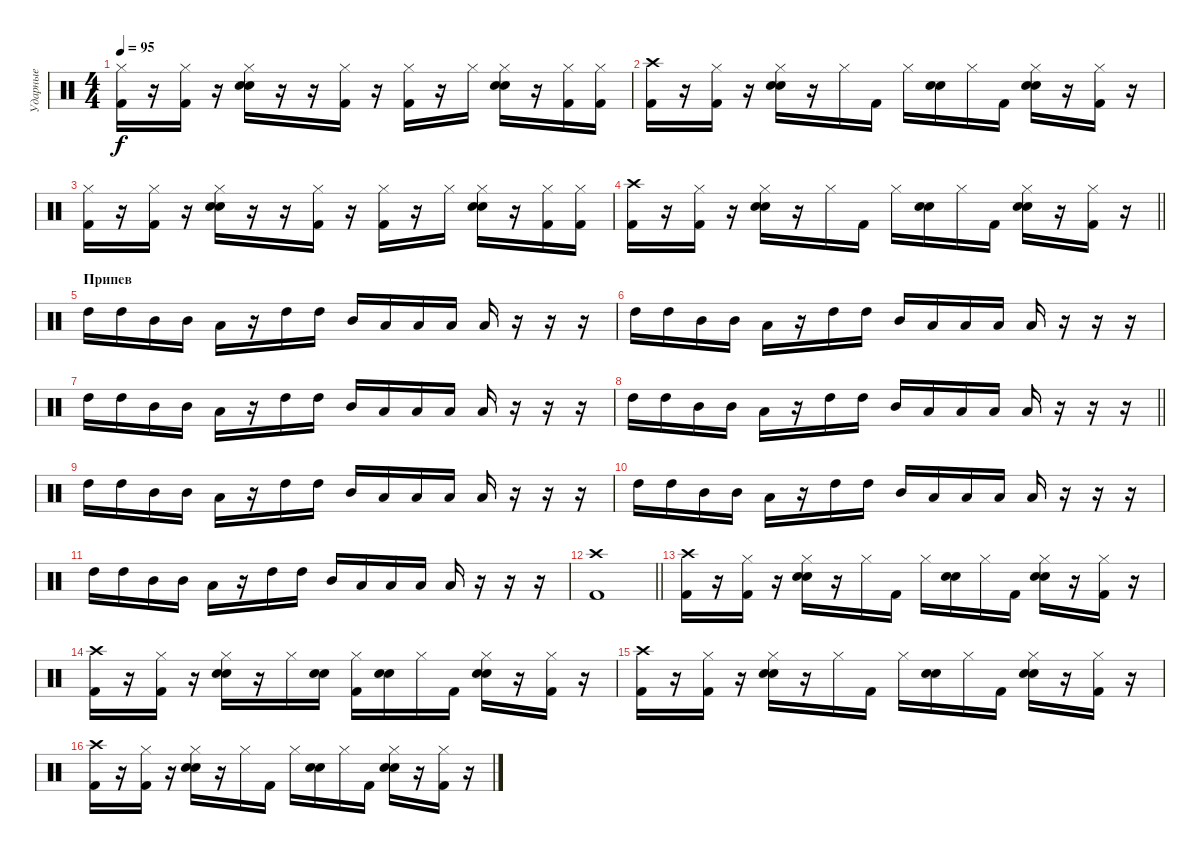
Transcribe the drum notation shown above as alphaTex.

\track ("Ударные" "Ударные") {instrument percussion}
\staff {score}
\articulation defaults
\ts (4 4)
\tempo 95
\clef neutral
\ks c
("Hi-Hat (closed)" "Kick (hit) 2").16{dy f} r.16 ("Hi-Hat (closed)" "Kick (hit) 2").16 r.16 ("Hi-Hat (closed)" "Snare (hit) 2" "Electric Snare (hit)").16 r.16 r.16 ("Hi-Hat (closed)" "Kick (hit) 2").16 r.16 ("Hi-Hat (closed)" "Kick (hit) 2").16 r.16 "Hi-Hat (closed)".16 ("Hi-Hat (closed)" "Snare (hit) 2" "Electric Snare (hit)").16 r.16 ("Hi-Hat (closed)" "Kick (hit) 2").16 ("Hi-Hat (closed)" "Kick (hit) 2").16 |
("Crash high (hit)" "Kick (hit) 2").16 r.16 ("Hi-Hat (closed)" "Kick (hit) 2").16 r.16 ("Hi-Hat (closed)" "Snare (hit) 2" "Electric Snare (hit)").16 r.16 "Hi-Hat (closed)".16 "Kick (hit) 2".16 "Hi-Hat (closed)".16 ("Snare (hit) 2" "Electric Snare (hit)").16 "Hi-Hat (closed)".16 "Kick (hit) 2".16 ("Hi-Hat (closed)" "Snare (hit) 2" "Electric Snare (hit)").16 r.16 ("Hi-Hat (closed)" "Kick (hit) 2").16 r.16 |
("Hi-Hat (closed)" "Kick (hit) 2").16 r.16 ("Hi-Hat (closed)" "Kick (hit) 2").16 r.16 ("Hi-Hat (closed)" "Snare (hit) 2" "Electric Snare (hit)").16 r.16 r.16 ("Hi-Hat (closed)" "Kick (hit) 2").16 r.16 ("Hi-Hat (closed)" "Kick (hit) 2").16 r.16 "Hi-Hat (closed)".16 ("Hi-Hat (closed)" "Snare (hit) 2" "Electric Snare (hit)").16 r.16 ("Hi-Hat (closed)" "Kick (hit) 2").16 ("Hi-Hat (closed)" "Kick (hit) 2").16 |
\barLineRight lightlight
("Crash high (hit)" "Kick (hit) 2").16 r.16 ("Hi-Hat (closed)" "Kick (hit) 2").16 r.16 ("Hi-Hat (closed)" "Snare (hit) 2" "Electric Snare (hit)").16 r.16 "Hi-Hat (closed)".16 "Kick (hit) 2".16 "Hi-Hat (closed)".16 ("Snare (hit) 2" "Electric Snare (hit)").16 "Hi-Hat (closed)".16 "Kick (hit) 2".16 ("Hi-Hat (closed)" "Snare (hit) 2" "Electric Snare (hit)").16 r.16 ("Hi-Hat (closed)" "Kick (hit) 2").16 r.16 |
\section ("" "Припев")
"High Tom (hit)".16 "High Tom (hit)".16 "Mid Tom (hit)".16 "Mid Tom (hit)".16 "Low Tom (hit)".16 r.16 "High Tom (hit)".16 "High Tom (hit)".16 "Mid Tom (hit)".16 "Low Tom (hit)".16 "Low Tom (hit)".16 "Low Tom (hit)".16 "Low Tom (hit)".16 r.16 r.16 r.16 |
"High Tom (hit)".16 "High Tom (hit)".16 "Mid Tom (hit)".16 "Mid Tom (hit)".16 "Low Tom (hit)".16 r.16 "High Tom (hit)".16 "High Tom (hit)".16 "Mid Tom (hit)".16 "Low Tom (hit)".16 "Low Tom (hit)".16 "Low Tom (hit)".16 "Low Tom (hit)".16 r.16 r.16 r.16 |
"High Tom (hit)".16 "High Tom (hit)".16 "Mid Tom (hit)".16 "Mid Tom (hit)".16 "Low Tom (hit)".16 r.16 "High Tom (hit)".16 "High Tom (hit)".16 "Mid Tom (hit)".16 "Low Tom (hit)".16 "Low Tom (hit)".16 "Low Tom (hit)".16 "Low Tom (hit)".16 r.16 r.16 r.16 |
\barLineRight lightlight "High Tom (hit)".16 "High Tom (hit)".16 "Mid Tom (hit)".16 "Mid Tom (hit)".16 "Low Tom (hit)".16
r.16 "High Tom (hit)".16 "High Tom (hit)".16 "Mid Tom (hit)".16 "Low Tom (hit)".16 "Low Tom (hit)".16 "Low Tom (hit)".16 "Low Tom (hit)".16 r.16 r.16 r.16 |
"High Tom (hit)".16 "High Tom (hit)".16 "Mid Tom (hit)".16 "Mid Tom (hit)".16 "Low Tom (hit)".16 r.16 "High Tom (hit)".16 "High Tom (hit)".16 "Mid Tom (hit)".16 "Low Tom (hit)".16 "Low Tom (hit)".16 "Low Tom (hit)".16 "Low Tom (hit)".16 r.16 r.16 r.16 |
"High Tom (hit)".16 "High Tom (hit)".16 "Mid Tom (hit)".16 "Mid Tom (hit)".16 "Low Tom (hit)".16 r.16 "High Tom (hit)".16 "High Tom (hit)".16 "Mid Tom (hit)".16 "Low Tom (hit)".16 "Low Tom (hit)".16 "Low Tom (hit)".16 "Low Tom (hit)".16 r.16 r.16 r.16 |
"High Tom (hit)".16 "High Tom (hit)".16 "Mid Tom (hit)".16 "Mid Tom (hit)".16 "Low Tom (hit)".16 r.16 "High Tom (hit)".16 "High Tom (hit)".16 "Mid Tom (hit)".16 "Low Tom (hit)".16 "Low Tom (hit)".16 "Low Tom (hit)".16 "Low Tom (hit)".16 r.16 r.16 r.16 |
\barLineRight lightlight
("Crash high (hit)" "Kick (hit) 2").1 |
("Crash high (hit)" "Kick (hit) 2").16 r.16 ("Hi-Hat (closed)" "Kick (hit) 2").16 r.16 ("Hi-Hat (closed)" "Snare (hit) 2" "Electric Snare (hit)").16 r.16 "Hi-Hat (closed)".16 "Kick (hit) 2".16 "Hi-Hat (closed)".16 ("Snare (hit) 2" "Electric Snare (hit)").16 "Hi-Hat (closed)".16 "Kick (hit) 2".16 ("Hi-Hat (closed)" "Snare (hit) 2" "Electric Snare (hit)").16 r.16 ("Hi-Hat (closed)" "Kick (hit) 2").16 r.16 |
("Crash high (hit)" "Kick (hit) 2").16 r.16 ("Hi-Hat (closed)" "Kick (hit) 2").16 r.16 ("Hi-Hat (closed)" "Snare (hit) 2" "Electric Snare (hit)").16 r.16 "Hi-Hat (closed)".16 ("Snare (hit) 2" "Electric Snare (hit)").16 ("Hi-Hat (closed)" "Kick (hit) 2").16 ("Snare (hit) 2" "Electric Snare (hit)").16 "Hi-Hat (closed)".16 "Kick (hit) 2".16 ("Hi-Hat (closed)" "Snare (hit) 2" "Electric Snare (hit)").16 r.16 ("Hi-Hat (closed)" "Kick (hit) 2").16 r.16 |
("Crash high (hit)" "Kick (hit) 2").16 r.16 ("Hi-Hat (closed)" "Kick (hit) 2").16 r.16 ("Hi-Hat (closed)" "Snare (hit) 2" "Electric Snare (hit)").16 r.16 "Hi-Hat (closed)".16 "Kick (hit) 2".16 "Hi-Hat (closed)".16 ("Snare (hit) 2" "Electric Snare (hit)").16 "Hi-Hat (closed)".16 "Kick (hit) 2".16 ("Hi-Hat (closed)" "Snare (hit) 2" "Electric Snare (hit)").16 r.16 ("Hi-Hat (closed)" "Kick (hit) 2").16 r.16 |
("Crash high (hit)" "Kick (hit) 2").16 r.16 ("Hi-Hat (closed)" "Kick (hit) 2").16 r.16 ("Hi-Hat (closed)" "Snare (hit) 2" "Electric Snare (hit)").16 r.16 "Hi-Hat (closed)".16 "Kick (hit) 2".16 "Hi-Hat (closed)".16 ("Snare (hit) 2" "Electric Snare (hit)").16 "Hi-Hat (closed)".16 "Kick (hit) 2".16 ("Hi-Hat (closed)" "Snare (hit) 2" "Electric Snare (hit)").16 r.16 ("Hi-Hat (closed)" "Kick (hit) 2").16 r.16
